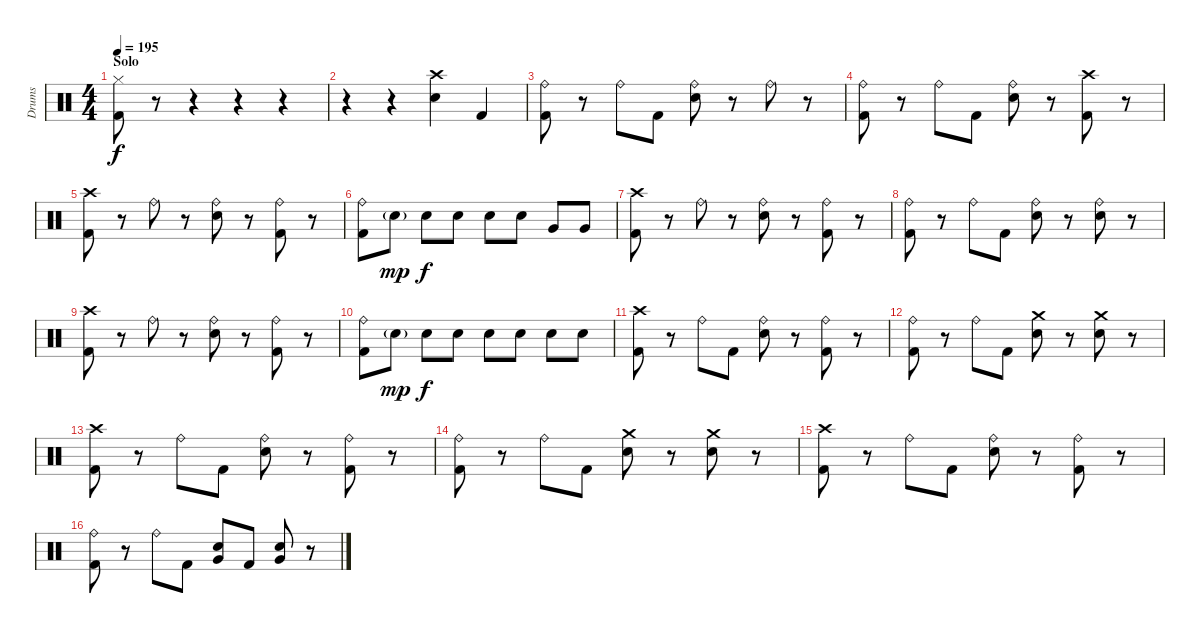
\track ("Drums" "Drums") {instrument percussion}
\staff {score}
\articulation defaults
\ts (4 4)
\section ("" "Solo")
\tempo 195
\clef neutral
\ks c
("Hi-Hat (closed)" "Kick (hit) 2").8{dy f} r.8 r.4 r.4 r.4 |
r.4 r.4 ("Crash high (hit)" "Electric Snare (hit)").4 "Kick (hit) 2".4 |
("Ride (bell)" "Kick (hit) 2").8 r.8 "Ride (bell)".8 "Kick (hit) 2".8 ("Ride (bell)" "Electric Snare (hit)").8 r.8 "Ride (bell)".8 r.8 |
("Ride (bell)" "Kick (hit) 2").8 r.8 "Ride (bell)".8 "Kick (hit) 2".8 ("Ride (bell)" "Electric Snare (hit)").8 r.8 ("Crash high (hit)" "Kick (hit) 2").8 r.8 |
("Crash high (hit)" "Kick (hit) 2").8 r.8 "Ride (bell)".8 r.8 ("Ride (bell)" "Electric Snare (hit)").8 r.8 ("Ride (bell)" "Kick (hit) 2").8 r.8 |
("Ride (bell)" "Kick (hit) 2").8 "Electric Snare (hit)"{g}.8{dy mp} "Electric Snare (hit)".8{dy f} "Electric Snare (hit)".8 "Electric Snare (hit)".8 "Electric Snare (hit)".8 "Very Low Tom (hit)".8 "Very Low Tom (hit)".8 |
("Crash high (hit)" "Kick (hit) 2").8 r.8 "Ride (bell)".8 r.8 ("Ride (bell)" "Electric Snare (hit)").8 r.8 ("Ride (bell)" "Kick (hit) 2").8 r.8 |
("Ride (bell)" "Kick (hit) 2").8 r.8 "Ride (bell)".8 "Kick (hit) 2".8 ("Ride (bell)" "Electric Snare (hit)").8 r.8 ("Ride (bell)" "Electric Snare (hit)").8 r.8 |
("Crash high (hit)" "Kick (hit) 2").8 r.8 "Ride (bell)".8 r.8 ("Ride (bell)" "Electric Snare (hit)").8 r.8 ("Ride (bell)" "Kick (hit) 2").8 r.8 |
("Ride (bell)" "Kick (hit) 2").8 "Electric Snare (hit)"{g}.8{dy mp} "Electric Snare (hit)".8{dy f} "Electric Snare (hit)".8 "Electric Snare (hit)".8 "Electric Snare (hit)".8 "Electric Snare (hit)".8 "Electric Snare (hit)".8 |
("Crash high (hit)" "Kick (hit) 2").8 r.8 "Ride (bell)".8 "Kick (hit) 2".8 ("Ride (bell)" "Electric Snare (hit)").8 r.8 ("Ride (bell)" "Kick (hit) 2").8 r.8 |
("Ride (bell)" "Kick (hit) 2").8 r.8 "Ride (bell)".8 "Kick (hit) 2".8 ("Crash medium (hit)" "Electric Snare (hit)").8 r.8 ("Crash medium (hit)" "Electric Snare (hit)").8 r.8 |
("Crash high (hit)" "Kick (hit) 2").8 r.8 "Ride (bell)".8 "Kick (hit) 2".8 ("Ride (bell)" "Electric Snare (hit)").8 r.8 ("Ride (bell)" "Kick (hit) 2").8 r.8 |
("Ride (bell)" "Kick (hit) 2").8 r.8 "Ride (bell)".8 "Kick (hit) 2".8 ("Crash medium (hit)" "Electric Snare (hit)").8 r.8 ("Crash medium (hit)" "Electric Snare (hit)").8 r.8 |
("Crash high (hit)" "Kick (hit) 2").8 r.8 "Ride (bell)".8 "Kick (hit) 2".8 ("Ride (bell)" "Electric Snare (hit)").8 r.8 ("Ride (bell)" "Kick (hit) 2").8 r.8 |
("Ride (bell)" "Kick (hit) 2").8 r.8 "Ride (bell)".8 "Kick (hit) 2".8 ("Very Low Tom (hit)" "Electric Snare (hit)").8 "Kick (hit) 2".8 ("Very Low Tom (hit)" "Electric Snare (hit)").8 r.8
